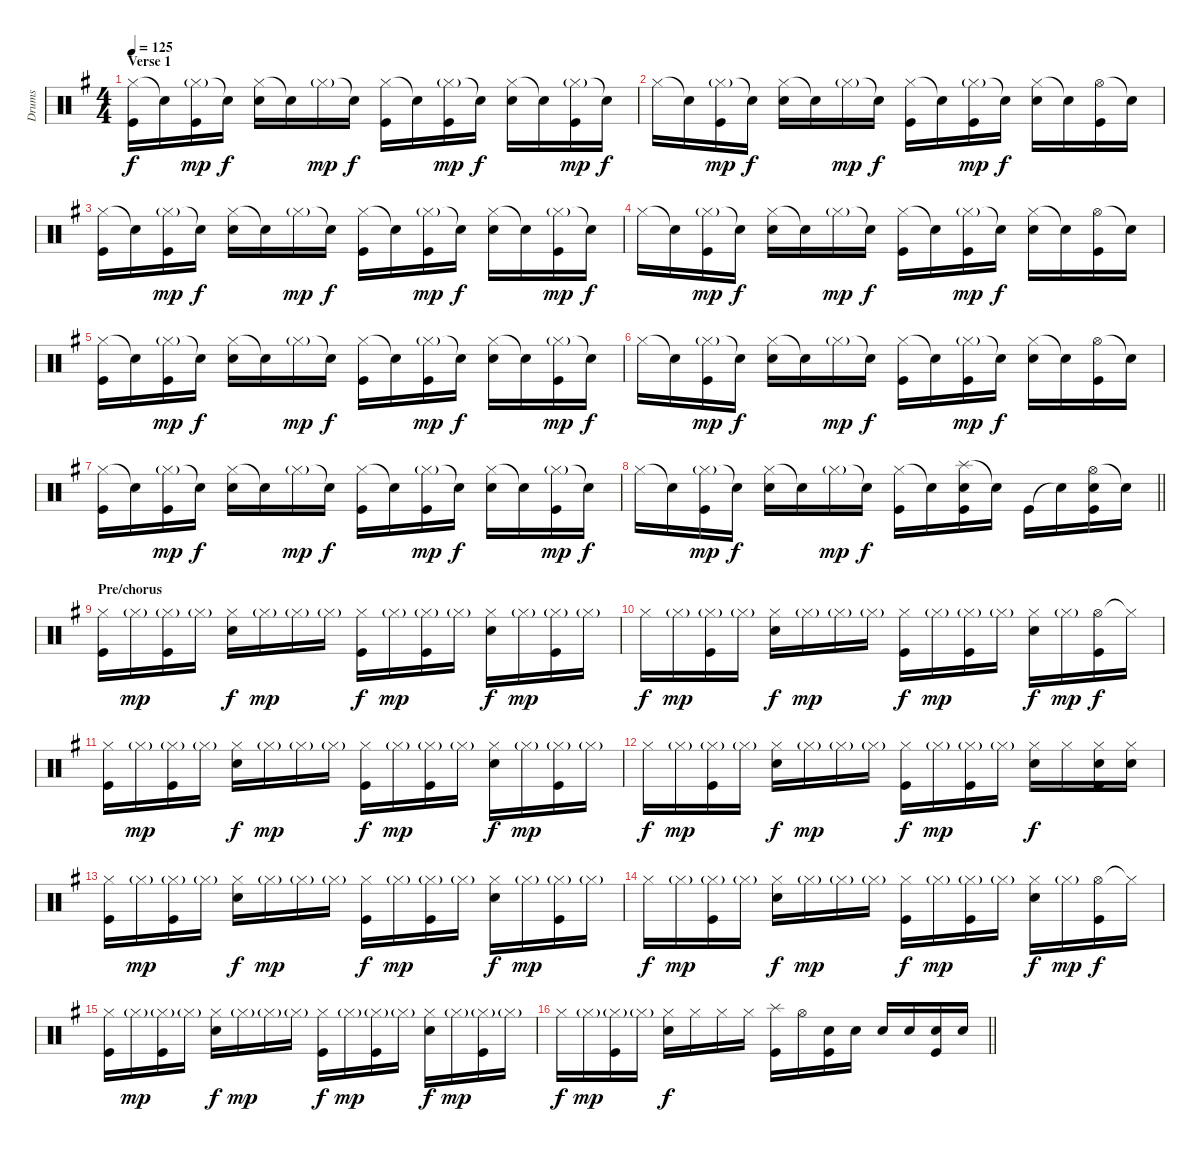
\track ("Drums" "Drums") {instrument percussion}
\staff {score}
\articulation defaults
\ts (4 4)
\section ("" "Verse 1")
\tempo 125
\clef neutral
\ks g
("Hi-Hat (closed)" "Kick (hit)").16{dy f} "Snare (hit)"{t}.16 ("Hi-Hat (closed)"{g} "Kick (hit)").16{dy mp} "Snare (hit)"{t}.16{dy f} ("Hi-Hat (closed)" "Electric Snare (hit)").16 "Snare (hit)"{t}.16 "Hi-Hat (closed)"{g}.16{dy mp} "Snare (hit)"{t}.16{dy f} ("Hi-Hat (closed)" "Kick (hit)").16 "Snare (hit)"{t}.16 ("Hi-Hat (closed)"{g} "Kick (hit)").16{dy mp} "Snare (hit)"{t}.16{dy f} ("Hi-Hat (closed)" "Electric Snare (hit)").16 "Snare (hit)"{t}.16 ("Hi-Hat (closed)"{g} "Kick (hit)").16{dy mp} "Snare (hit)"{t}.16{dy f} |
"Hi-Hat (closed)".16 "Snare (hit)"{t}.16 ("Hi-Hat (closed)"{g} "Kick (hit)").16{dy mp} "Snare (hit)"{t}.16{dy f} ("Hi-Hat (closed)" "Electric Snare (hit)").16 "Snare (hit)"{t}.16 "Hi-Hat (closed)"{g}.16{dy mp} "Snare (hit)"{t}.16{dy f} ("Hi-Hat (closed)" "Kick (hit)").16 "Snare (hit)"{t}.16 ("Hi-Hat (closed)"{g} "Kick (hit)").16{dy mp} "Snare (hit)"{t}.16{dy f} ("Hi-Hat (closed)" "Electric Snare (hit)").16 "Snare (hit)"{t}.16 ("Hi-Hat (open)" "Kick (hit)").16 "Snare (hit)"{t}.16 |
("Hi-Hat (closed)" "Kick (hit)").16 "Snare (hit)"{t}.16 ("Hi-Hat (closed)"{g} "Kick (hit)").16{dy mp} "Snare (hit)"{t}.16{dy f} ("Hi-Hat (closed)" "Electric Snare (hit)").16 "Snare (hit)"{t}.16 "Hi-Hat (closed)"{g}.16{dy mp} "Snare (hit)"{t}.16{dy f} ("Hi-Hat (closed)" "Kick (hit)").16 "Snare (hit)"{t}.16 ("Hi-Hat (closed)"{g} "Kick (hit)").16{dy mp} "Snare (hit)"{t}.16{dy f} ("Hi-Hat (closed)" "Electric Snare (hit)").16 "Snare (hit)"{t}.16 ("Hi-Hat (closed)"{g} "Kick (hit)").16{dy mp} "Snare (hit)"{t}.16{dy f} |
"Hi-Hat (closed)".16 "Snare (hit)"{t}.16 ("Hi-Hat (closed)"{g} "Kick (hit)").16{dy mp} "Snare (hit)"{t}.16{dy f} ("Hi-Hat (closed)" "Electric Snare (hit)").16 "Snare (hit)"{t}.16 "Hi-Hat (closed)"{g}.16{dy mp} "Snare (hit)"{t}.16{dy f} ("Hi-Hat (closed)" "Kick (hit)").16 "Snare (hit)"{t}.16 ("Hi-Hat (closed)"{g} "Kick (hit)").16{dy mp} "Snare (hit)"{t}.16{dy f} ("Hi-Hat (closed)" "Electric Snare (hit)").16 "Snare (hit)"{t}.16 ("Hi-Hat (open)" "Kick (hit)").16 "Snare (hit)"{t}.16 |
("Hi-Hat (closed)" "Kick (hit)").16 "Snare (hit)"{t}.16 ("Hi-Hat (closed)"{g} "Kick (hit)").16{dy mp} "Snare (hit)"{t}.16{dy f} ("Hi-Hat (closed)" "Electric Snare (hit)").16 "Snare (hit)"{t}.16 "Hi-Hat (closed)"{g}.16{dy mp} "Snare (hit)"{t}.16{dy f} ("Hi-Hat (closed)" "Kick (hit)").16 "Snare (hit)"{t}.16 ("Hi-Hat (closed)"{g} "Kick (hit)").16{dy mp} "Snare (hit)"{t}.16{dy f} ("Hi-Hat (closed)" "Electric Snare (hit)").16 "Snare (hit)"{t}.16 ("Hi-Hat (closed)"{g} "Kick (hit)").16{dy mp} "Snare (hit)"{t}.16{dy f} |
"Hi-Hat (closed)".16 "Snare (hit)"{t}.16 ("Hi-Hat (closed)"{g} "Kick (hit)").16{dy mp} "Snare (hit)"{t}.16{dy f} ("Hi-Hat (closed)" "Electric Snare (hit)").16 "Snare (hit)"{t}.16 "Hi-Hat (closed)"{g}.16{dy mp} "Snare (hit)"{t}.16{dy f} ("Hi-Hat (closed)" "Kick (hit)").16 "Snare (hit)"{t}.16 ("Hi-Hat (closed)"{g} "Kick (hit)").16{dy mp} "Snare (hit)"{t}.16{dy f} ("Hi-Hat (closed)" "Electric Snare (hit)").16 "Snare (hit)"{t}.16 ("Hi-Hat (open)" "Kick (hit)").16 "Snare (hit)"{t}.16 |
("Hi-Hat (closed)" "Kick (hit)").16 "Snare (hit)"{t}.16 ("Hi-Hat (closed)"{g} "Kick (hit)").16{dy mp} "Snare (hit)"{t}.16{dy f} ("Hi-Hat (closed)" "Electric Snare (hit)").16 "Snare (hit)"{t}.16 "Hi-Hat (closed)"{g}.16{dy mp} "Snare (hit)"{t}.16{dy f} ("Hi-Hat (closed)" "Kick (hit)").16 "Snare (hit)"{t}.16 ("Hi-Hat (closed)"{g} "Kick (hit)").16{dy mp} "Snare (hit)"{t}.16{dy f} ("Hi-Hat (closed)" "Electric Snare (hit)").16 "Snare (hit)"{t}.16 ("Hi-Hat (closed)"{g} "Kick (hit)").16{dy mp} "Snare (hit)"{t}.16{dy f} |
\barLineRight lightlight "Hi-Hat (closed)".16 "Snare (hit)"{t}.16
("Hi-Hat (closed)"{g} "Kick (hit)").16{dy mp} "Snare (hit)"{t}.16{dy f} ("Hi-Hat (closed)" "Electric Snare (hit)").16 "Snare (hit)"{t}.16 "Hi-Hat (closed)"{g}.16{dy mp} "Snare (hit)"{t}.16{dy f} ("Hi-Hat (closed)" "Kick (hit)").16 "Snare (hit)"{t}.16 ("Splash (hit)" "Electric Snare (hit)" "Kick (hit)").16 "Snare (hit)"{t}.16 "Kick (hit)".16 "Snare (hit)"{t}.16 ("Hi-Hat (open)" "Electric Snare (hit)" "Kick (hit)").16 "Snare (hit)"{t}.16 |
\section ("" "Pre/chorus")
("Hi-Hat (closed)" "Kick (hit)").16 "Hi-Hat (closed)"{g}.16{dy mp} ("Hi-Hat (closed)"{g} "Kick (hit)").16 "Hi-Hat (closed)"{g}.16 ("Hi-Hat (closed)" "Electric Snare (hit)").16{dy f} "Hi-Hat (closed)"{g}.16{dy mp} "Hi-Hat (closed)"{g}.16 "Hi-Hat (closed)"{g}.16 ("Hi-Hat (closed)" "Kick (hit)").16{dy f} "Hi-Hat (closed)"{g}.16{dy mp} ("Hi-Hat (closed)"{g} "Kick (hit)").16 "Hi-Hat (closed)"{g}.16 ("Hi-Hat (closed)" "Electric Snare (hit)").16{dy f} "Hi-Hat (closed)"{g}.16{dy mp} ("Hi-Hat (closed)"{g} "Kick (hit)").16 "Hi-Hat (closed)"{g}.16 |
"Hi-Hat (closed)".16{dy f} "Hi-Hat (closed)"{g}.16{dy mp} ("Hi-Hat (closed)"{g} "Kick (hit)").16 "Hi-Hat (closed)"{g}.16 ("Hi-Hat (closed)" "Electric Snare (hit)").16{dy f} "Hi-Hat (closed)"{g}.16{dy mp} "Hi-Hat (closed)"{g}.16 "Hi-Hat (closed)"{g}.16 ("Hi-Hat (closed)" "Kick (hit)").16{dy f} "Hi-Hat (closed)"{g}.16{dy mp} ("Hi-Hat (closed)"{g} "Kick (hit)").16 "Hi-Hat (closed)"{g}.16 ("Hi-Hat (closed)" "Electric Snare (hit)").16{dy f} "Hi-Hat (closed)"{g}.16{dy mp} ("Hi-Hat (open)" "Kick (hit)").16{dy f} "Hi-Hat (closed)"{t}.16 |
("Hi-Hat (closed)" "Kick (hit)").16 "Hi-Hat (closed)"{g}.16{dy mp} ("Hi-Hat (closed)"{g} "Kick (hit)").16 "Hi-Hat (closed)"{g}.16 ("Hi-Hat (closed)" "Electric Snare (hit)").16{dy f} "Hi-Hat (closed)"{g}.16{dy mp} "Hi-Hat (closed)"{g}.16 "Hi-Hat (closed)"{g}.16 ("Hi-Hat (closed)" "Kick (hit)").16{dy f} "Hi-Hat (closed)"{g}.16{dy mp} ("Hi-Hat (closed)"{g} "Kick (hit)").16 "Hi-Hat (closed)"{g}.16 ("Hi-Hat (closed)" "Electric Snare (hit)").16{dy f} "Hi-Hat (closed)"{g}.16{dy mp} ("Hi-Hat (closed)"{g} "Kick (hit)").16 "Hi-Hat (closed)"{g}.16 |
"Hi-Hat (closed)".16{dy f} "Hi-Hat (closed)"{g}.16{dy mp} ("Hi-Hat (closed)"{g} "Kick (hit)").16 "Hi-Hat (closed)"{g}.16 ("Hi-Hat (closed)" "Electric Snare (hit)").16{dy f} "Hi-Hat (closed)"{g}.16{dy mp} "Hi-Hat (closed)"{g}.16 "Hi-Hat (closed)"{g}.16 ("Hi-Hat (closed)" "Kick (hit)").16{dy f} "Hi-Hat (closed)"{g}.16{dy mp} ("Hi-Hat (closed)"{g} "Kick (hit)").16 "Hi-Hat (closed)"{g}.16 ("Hi-Hat (closed)" "Electric Snare (hit)").16{dy f} "Hi-Hat (closed)".16 ("Hi-Hat (closed)" "Electric Snare (hit)" "Kick (hit)").16 ("Hi-Hat (closed)" "Electric Snare (hit)").16 |
("Hi-Hat (closed)" "Kick (hit)").16 "Hi-Hat (closed)"{g}.16{dy mp} ("Hi-Hat (closed)"{g} "Kick (hit)").16 "Hi-Hat (closed)"{g}.16 ("Hi-Hat (closed)" "Electric Snare (hit)").16{dy f} "Hi-Hat (closed)"{g}.16{dy mp} "Hi-Hat (closed)"{g}.16 "Hi-Hat (closed)"{g}.16 ("Hi-Hat (closed)" "Kick (hit)").16{dy f} "Hi-Hat (closed)"{g}.16{dy mp} ("Hi-Hat (closed)"{g} "Kick (hit)").16 "Hi-Hat (closed)"{g}.16 ("Hi-Hat (closed)" "Electric Snare (hit)").16{dy f} "Hi-Hat (closed)"{g}.16{dy mp} ("Hi-Hat (closed)"{g} "Kick (hit)").16 "Hi-Hat (closed)"{g}.16 |
"Hi-Hat (closed)".16{dy f} "Hi-Hat (closed)"{g}.16{dy mp} ("Hi-Hat (closed)"{g} "Kick (hit)").16 "Hi-Hat (closed)"{g}.16 ("Hi-Hat (closed)" "Electric Snare (hit)").16{dy f} "Hi-Hat (closed)"{g}.16{dy mp} "Hi-Hat (closed)"{g}.16 "Hi-Hat (closed)"{g}.16 ("Hi-Hat (closed)" "Kick (hit)").16{dy f} "Hi-Hat (closed)"{g}.16{dy mp} ("Hi-Hat (closed)"{g} "Kick (hit)").16 "Hi-Hat (closed)"{g}.16 ("Hi-Hat (closed)" "Electric Snare (hit)").16{dy f} "Hi-Hat (closed)"{g}.16{dy mp} ("Hi-Hat (open)" "Kick (hit)").16{dy f} "Hi-Hat (closed)"{t}.16 |
("Hi-Hat (closed)" "Kick (hit)").16 "Hi-Hat (closed)"{g}.16{dy mp} ("Hi-Hat (closed)"{g} "Kick (hit)").16 "Hi-Hat (closed)"{g}.16 ("Hi-Hat (closed)" "Electric Snare (hit)").16{dy f} "Hi-Hat (closed)"{g}.16{dy mp} "Hi-Hat (closed)"{g}.16 "Hi-Hat (closed)"{g}.16 ("Hi-Hat (closed)" "Kick (hit)").16{dy f} "Hi-Hat (closed)"{g}.16{dy mp} ("Hi-Hat (closed)"{g} "Kick (hit)").16 "Hi-Hat (closed)"{g}.16 ("Hi-Hat (closed)" "Electric Snare (hit)").16{dy f} "Hi-Hat (closed)"{g}.16{dy mp} ("Hi-Hat (closed)"{g} "Kick (hit)").16 "Hi-Hat (closed)"{g}.16 |
\barLineRight lightlight "Hi-Hat (closed)".16{dy f} "Hi-Hat (closed)"{g}.16{dy mp}
("Hi-Hat (closed)"{g} "Kick (hit)").16 "Hi-Hat (closed)"{g}.16 ("Hi-Hat (closed)" "Electric Snare (hit)").16{dy f} "Hi-Hat (closed)".16 "Hi-Hat (closed)".16 "Hi-Hat (closed)".16 ("Splash (hit)" "Kick (hit)").16 "Hi-Hat (open)".16 ("Electric Snare (hit)" "Kick (hit)").16 "Electric Snare (hit)".16 "Electric Snare (hit)".16 "Electric Snare (hit)".16 ("Electric Snare (hit)" "Kick (hit)").16 "Electric Snare (hit)".16
